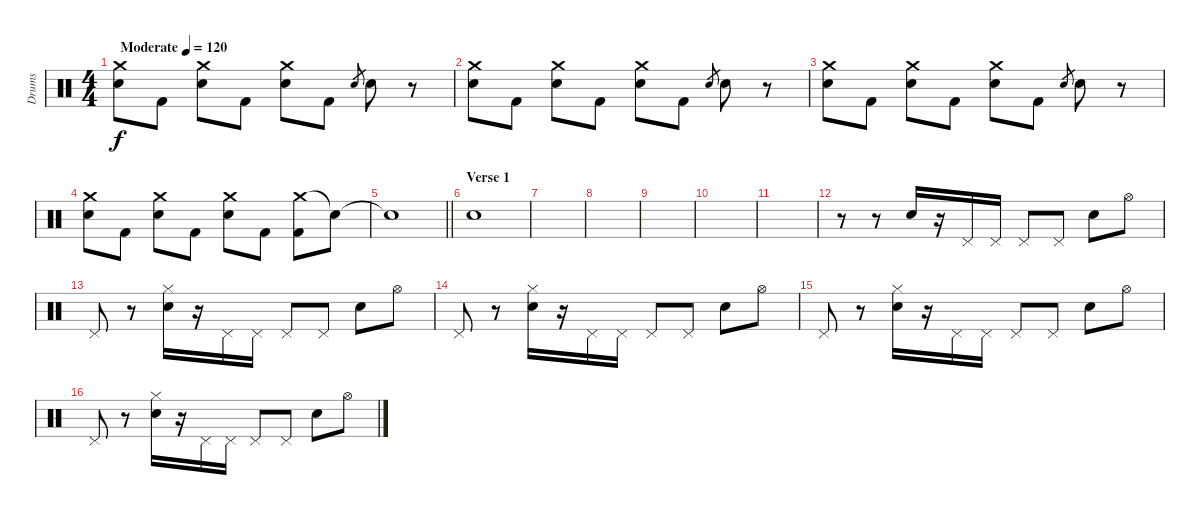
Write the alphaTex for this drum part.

\track ("Drums" "Drums") {instrument percussion}
\staff {score}
\articulation defaults
\ts (4 4)
\tempo (120 "Moderate")
\clef neutral
\ks c
("Crash medium (hit)" "Electric Snare (hit)").8{dy f} "Kick (hit) 2".8 ("Crash medium (hit)" "Electric Snare (hit)").8 "Kick (hit) 2".8 ("Crash medium (hit)" "Electric Snare (hit)").8 "Kick (hit) 2".8 "Electric Snare (hit)".8{gr} "Electric Snare (hit)".8 r.8 |
("Crash medium (hit)" "Electric Snare (hit)").8 "Kick (hit) 2".8 ("Crash medium (hit)" "Electric Snare (hit)").8 "Kick (hit) 2".8 ("Crash medium (hit)" "Electric Snare (hit)").8 "Kick (hit) 2".8 "Electric Snare (hit)".8{gr} "Electric Snare (hit)".8 r.8 |
("Crash medium (hit)" "Electric Snare (hit)").8 "Kick (hit) 2".8 ("Crash medium (hit)" "Electric Snare (hit)").8 "Kick (hit) 2".8 ("Crash medium (hit)" "Electric Snare (hit)").8 "Kick (hit) 2".8 "Electric Snare (hit)".8{gr} "Electric Snare (hit)".8 r.8 |
("Crash medium (hit)" "Electric Snare (hit)").8 "Kick (hit) 2".8 ("Crash medium (hit)" "Electric Snare (hit)").8 "Kick (hit) 2".8 ("Crash medium (hit)" "Electric Snare (hit)").8 "Kick (hit) 2".8 ("Crash medium (hit)" "Kick (hit) 2").8 "Snare (hit)"{t}.8 |
\barLineRight lightlight "Snare (hit)"{t}.1
|
\section ("" "Verse 1")
"Electric Snare (hit)".1 |
|
|
|
|
|
r.8 r.8 "Electric Snare (hit)".16 r.16 "Pedal Hi-Hat (hit)".16 "Pedal Hi-Hat (hit)".16 "Pedal Hi-Hat (hit)".8 "Pedal Hi-Hat (hit)".8 "Electric Snare (hit)".8 "Hi-Hat (open)".8 |
"Pedal Hi-Hat (hit)".8 r.8 ("Hi-Hat (closed)" "Electric Snare (hit)").16 r.16 "Pedal Hi-Hat (hit)".16 "Pedal Hi-Hat (hit)".16 "Pedal Hi-Hat (hit)".8 "Pedal Hi-Hat (hit)".8 "Electric Snare (hit)".8 "Hi-Hat (open)".8 |
"Pedal Hi-Hat (hit)".8 r.8 ("Hi-Hat (closed)" "Electric Snare (hit)").16 r.16 "Pedal Hi-Hat (hit)".16 "Pedal Hi-Hat (hit)".16 "Pedal Hi-Hat (hit)".8 "Pedal Hi-Hat (hit)".8 "Electric Snare (hit)".8 "Hi-Hat (open)".8 |
"Pedal Hi-Hat (hit)".8 r.8 ("Hi-Hat (closed)" "Electric Snare (hit)").16 r.16 "Pedal Hi-Hat (hit)".16 "Pedal Hi-Hat (hit)".16 "Pedal Hi-Hat (hit)".8 "Pedal Hi-Hat (hit)".8 "Electric Snare (hit)".8 "Hi-Hat (open)".8 |
"Pedal Hi-Hat (hit)".8 r.8 ("Hi-Hat (closed)" "Electric Snare (hit)").16 r.16 "Pedal Hi-Hat (hit)".16 "Pedal Hi-Hat (hit)".16 "Pedal Hi-Hat (hit)".8 "Pedal Hi-Hat (hit)".8 "Electric Snare (hit)".8 "Hi-Hat (open)".8
